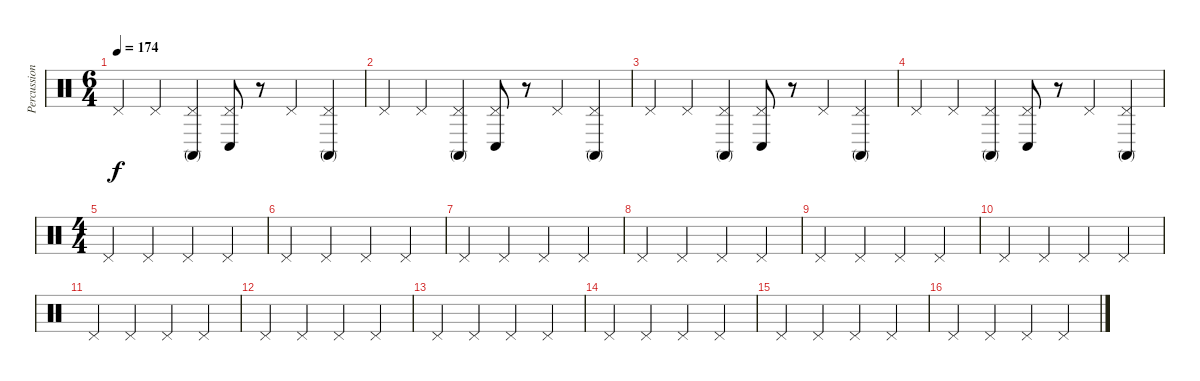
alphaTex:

\track ("Percussion" "Percussion") {instrument percussion}
\staff {score}
\articulation defaults
\ts (6 4)
\tempo 174
\clef neutral
\ks c "Pedal Hi-Hat (hit)".4{dy f} "Pedal Hi-Hat (hit)".4
("Pedal Hi-Hat (hit)" "Conga high (mute)").4 ("Pedal Hi-Hat (hit)" "Conga low (hit)").8 r.8 "Pedal Hi-Hat (hit)".4 ("Pedal Hi-Hat (hit)" "Conga high (mute)").4 |
"Pedal Hi-Hat (hit)".4 "Pedal Hi-Hat (hit)".4 ("Pedal Hi-Hat (hit)" "Conga high (mute)").4 ("Pedal Hi-Hat (hit)" "Conga low (hit)").8 r.8 "Pedal Hi-Hat (hit)".4 ("Pedal Hi-Hat (hit)" "Conga high (mute)").4 |
"Pedal Hi-Hat (hit)".4 "Pedal Hi-Hat (hit)".4 ("Pedal Hi-Hat (hit)" "Conga high (mute)").4 ("Pedal Hi-Hat (hit)" "Conga low (hit)").8 r.8 "Pedal Hi-Hat (hit)".4 ("Pedal Hi-Hat (hit)" "Conga high (mute)").4 |
"Pedal Hi-Hat (hit)".4 "Pedal Hi-Hat (hit)".4 ("Pedal Hi-Hat (hit)" "Conga high (mute)").4 ("Pedal Hi-Hat (hit)" "Conga low (hit)").8 r.8 "Pedal Hi-Hat (hit)".4 ("Pedal Hi-Hat (hit)" "Conga high (mute)").4 |
\ts (4 4)
"Pedal Hi-Hat (hit)".4 "Pedal Hi-Hat (hit)".4 "Pedal Hi-Hat (hit)".4 "Pedal Hi-Hat (hit)".4 |
"Pedal Hi-Hat (hit)".4 "Pedal Hi-Hat (hit)".4 "Pedal Hi-Hat (hit)".4 "Pedal Hi-Hat (hit)".4 |
"Pedal Hi-Hat (hit)".4 "Pedal Hi-Hat (hit)".4 "Pedal Hi-Hat (hit)".4 "Pedal Hi-Hat (hit)".4 |
"Pedal Hi-Hat (hit)".4 "Pedal Hi-Hat (hit)".4 "Pedal Hi-Hat (hit)".4 "Pedal Hi-Hat (hit)".4 |
"Pedal Hi-Hat (hit)".4 "Pedal Hi-Hat (hit)".4 "Pedal Hi-Hat (hit)".4 "Pedal Hi-Hat (hit)".4 |
"Pedal Hi-Hat (hit)".4 "Pedal Hi-Hat (hit)".4 "Pedal Hi-Hat (hit)".4 "Pedal Hi-Hat (hit)".4 |
"Pedal Hi-Hat (hit)".4 "Pedal Hi-Hat (hit)".4 "Pedal Hi-Hat (hit)".4 "Pedal Hi-Hat (hit)".4 |
"Pedal Hi-Hat (hit)".4 "Pedal Hi-Hat (hit)".4 "Pedal Hi-Hat (hit)".4 "Pedal Hi-Hat (hit)".4 |
"Pedal Hi-Hat (hit)".4 "Pedal Hi-Hat (hit)".4 "Pedal Hi-Hat (hit)".4 "Pedal Hi-Hat (hit)".4 |
"Pedal Hi-Hat (hit)".4 "Pedal Hi-Hat (hit)".4 "Pedal Hi-Hat (hit)".4 "Pedal Hi-Hat (hit)".4 |
"Pedal Hi-Hat (hit)".4 "Pedal Hi-Hat (hit)".4 "Pedal Hi-Hat (hit)".4 "Pedal Hi-Hat (hit)".4 |
"Pedal Hi-Hat (hit)".4 "Pedal Hi-Hat (hit)".4 "Pedal Hi-Hat (hit)".4 "Pedal Hi-Hat (hit)".4
